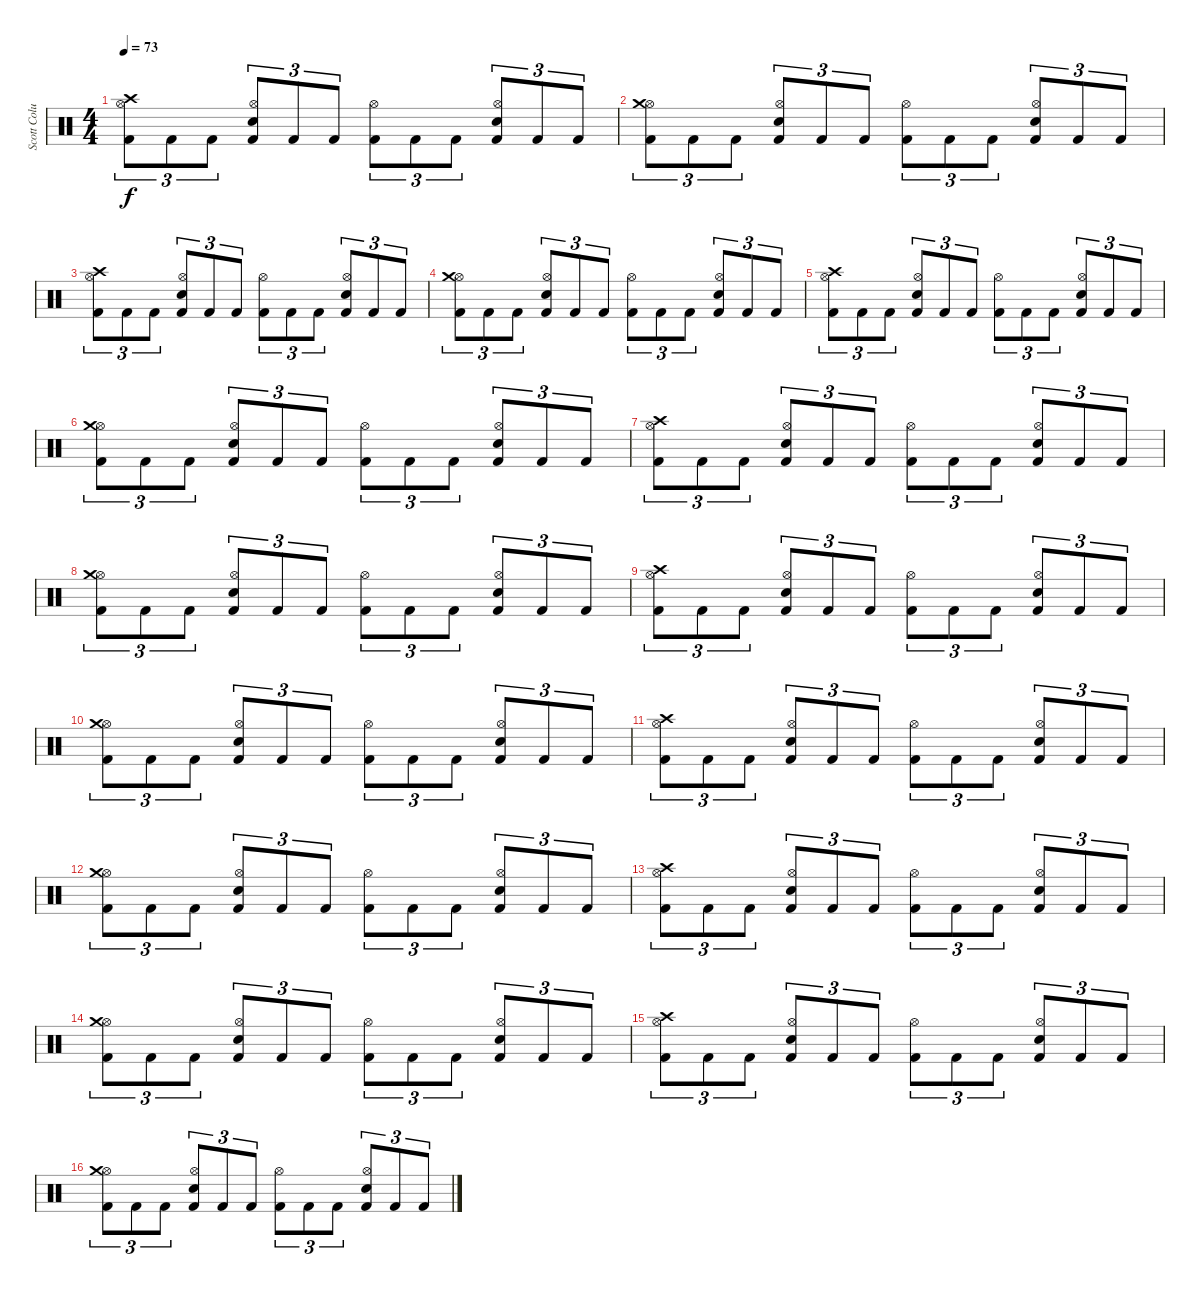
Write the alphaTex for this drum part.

\track ("Scott Columbus" "Scott Colu") {instrument percussion}
\staff {score}
\articulation defaults
\ts (4 4)
\tempo 73
\clef neutral
\ks c
("Kick (hit) 2" "Hi-Hat (open)" "Crash high (hit)").8{tu (3 2) dy f} "Kick (hit) 2".8{tu (3 2)} "Kick (hit) 2".8{tu (3 2)} ("Kick (hit) 2" "Electric Snare (hit)" "Hi-Hat (open)").8{tu (3 2)} "Kick (hit) 2".8{tu (3 2)} "Kick (hit) 2".8{tu (3 2)} ("Kick (hit) 2" "Hi-Hat (open)").8{tu (3 2)} "Kick (hit) 2".8{tu (3 2)} "Kick (hit) 2".8{tu (3 2)} ("Kick (hit) 2" "Electric Snare (hit)" "Hi-Hat (open)").8{tu (3 2)} "Kick (hit) 2".8{tu (3 2)} "Kick (hit) 2".8{tu (3 2)} |
("Kick (hit) 2" "Hi-Hat (open)" "Crash medium (hit)").8{tu (3 2)} "Kick (hit) 2".8{tu (3 2)} "Kick (hit) 2".8{tu (3 2)} ("Kick (hit) 2" "Electric Snare (hit)" "Hi-Hat (open)").8{tu (3 2)} "Kick (hit) 2".8{tu (3 2)} "Kick (hit) 2".8{tu (3 2)} ("Kick (hit) 2" "Hi-Hat (open)").8{tu (3 2)} "Kick (hit) 2".8{tu (3 2)} "Kick (hit) 2".8{tu (3 2)} ("Kick (hit) 2" "Electric Snare (hit)" "Hi-Hat (open)").8{tu (3 2)} "Kick (hit) 2".8{tu (3 2)} "Kick (hit) 2".8{tu (3 2)} |
("Kick (hit) 2" "Hi-Hat (open)" "Crash high (hit)").8{tu (3 2)} "Kick (hit) 2".8{tu (3 2)} "Kick (hit) 2".8{tu (3 2)} ("Kick (hit) 2" "Electric Snare (hit)" "Hi-Hat (open)").8{tu (3 2)} "Kick (hit) 2".8{tu (3 2)} "Kick (hit) 2".8{tu (3 2)} ("Kick (hit) 2" "Hi-Hat (open)").8{tu (3 2)} "Kick (hit) 2".8{tu (3 2)} "Kick (hit) 2".8{tu (3 2)} ("Kick (hit) 2" "Electric Snare (hit)" "Hi-Hat (open)").8{tu (3 2)} "Kick (hit) 2".8{tu (3 2)} "Kick (hit) 2".8{tu (3 2)} |
("Kick (hit) 2" "Hi-Hat (open)" "Crash medium (hit)").8{tu (3 2)} "Kick (hit) 2".8{tu (3 2)} "Kick (hit) 2".8{tu (3 2)} ("Kick (hit) 2" "Electric Snare (hit)" "Hi-Hat (open)").8{tu (3 2)} "Kick (hit) 2".8{tu (3 2)} "Kick (hit) 2".8{tu (3 2)} ("Kick (hit) 2" "Hi-Hat (open)").8{tu (3 2)} "Kick (hit) 2".8{tu (3 2)} "Kick (hit) 2".8{tu (3 2)} ("Kick (hit) 2" "Electric Snare (hit)" "Hi-Hat (open)").8{tu (3 2)} "Kick (hit) 2".8{tu (3 2)} "Kick (hit) 2".8{tu (3 2)} |
("Kick (hit) 2" "Hi-Hat (open)" "Crash high (hit)").8{tu (3 2)} "Kick (hit) 2".8{tu (3 2)} "Kick (hit) 2".8{tu (3 2)} ("Kick (hit) 2" "Electric Snare (hit)" "Hi-Hat (open)").8{tu (3 2)} "Kick (hit) 2".8{tu (3 2)} "Kick (hit) 2".8{tu (3 2)} ("Kick (hit) 2" "Hi-Hat (open)").8{tu (3 2)} "Kick (hit) 2".8{tu (3 2)} "Kick (hit) 2".8{tu (3 2)} ("Kick (hit) 2" "Electric Snare (hit)" "Hi-Hat (open)").8{tu (3 2)} "Kick (hit) 2".8{tu (3 2)} "Kick (hit) 2".8{tu (3 2)} |
("Kick (hit) 2" "Hi-Hat (open)" "Crash medium (hit)").8{tu (3 2)} "Kick (hit) 2".8{tu (3 2)} "Kick (hit) 2".8{tu (3 2)} ("Kick (hit) 2" "Electric Snare (hit)" "Hi-Hat (open)").8{tu (3 2)} "Kick (hit) 2".8{tu (3 2)} "Kick (hit) 2".8{tu (3 2)} ("Kick (hit) 2" "Hi-Hat (open)").8{tu (3 2)} "Kick (hit) 2".8{tu (3 2)} "Kick (hit) 2".8{tu (3 2)} ("Kick (hit) 2" "Electric Snare (hit)" "Hi-Hat (open)").8{tu (3 2)} "Kick (hit) 2".8{tu (3 2)} "Kick (hit) 2".8{tu (3 2)} |
("Kick (hit) 2" "Hi-Hat (open)" "Crash high (hit)").8{tu (3 2)} "Kick (hit) 2".8{tu (3 2)} "Kick (hit) 2".8{tu (3 2)} ("Kick (hit) 2" "Electric Snare (hit)" "Hi-Hat (open)").8{tu (3 2)} "Kick (hit) 2".8{tu (3 2)} "Kick (hit) 2".8{tu (3 2)} ("Kick (hit) 2" "Hi-Hat (open)").8{tu (3 2)} "Kick (hit) 2".8{tu (3 2)} "Kick (hit) 2".8{tu (3 2)} ("Kick (hit) 2" "Electric Snare (hit)" "Hi-Hat (open)").8{tu (3 2)} "Kick (hit) 2".8{tu (3 2)} "Kick (hit) 2".8{tu (3 2)} |
("Kick (hit) 2" "Hi-Hat (open)" "Crash medium (hit)").8{tu (3 2)} "Kick (hit) 2".8{tu (3 2)} "Kick (hit) 2".8{tu (3 2)} ("Kick (hit) 2" "Electric Snare (hit)" "Hi-Hat (open)").8{tu (3 2)} "Kick (hit) 2".8{tu (3 2)} "Kick (hit) 2".8{tu (3 2)} ("Kick (hit) 2" "Hi-Hat (open)").8{tu (3 2)} "Kick (hit) 2".8{tu (3 2)} "Kick (hit) 2".8{tu (3 2)} ("Kick (hit) 2" "Electric Snare (hit)" "Hi-Hat (open)").8{tu (3 2)} "Kick (hit) 2".8{tu (3 2)} "Kick (hit) 2".8{tu (3 2)} |
("Kick (hit) 2" "Hi-Hat (open)" "Crash high (hit)").8{tu (3 2)} "Kick (hit) 2".8{tu (3 2)} "Kick (hit) 2".8{tu (3 2)} ("Kick (hit) 2" "Electric Snare (hit)" "Hi-Hat (open)").8{tu (3 2)} "Kick (hit) 2".8{tu (3 2)} "Kick (hit) 2".8{tu (3 2)} ("Kick (hit) 2" "Hi-Hat (open)").8{tu (3 2)} "Kick (hit) 2".8{tu (3 2)} "Kick (hit) 2".8{tu (3 2)} ("Kick (hit) 2" "Electric Snare (hit)" "Hi-Hat (open)").8{tu (3 2)} "Kick (hit) 2".8{tu (3 2)} "Kick (hit) 2".8{tu (3 2)} |
("Kick (hit) 2" "Hi-Hat (open)" "Crash medium (hit)").8{tu (3 2)} "Kick (hit) 2".8{tu (3 2)} "Kick (hit) 2".8{tu (3 2)} ("Kick (hit) 2" "Electric Snare (hit)" "Hi-Hat (open)").8{tu (3 2)} "Kick (hit) 2".8{tu (3 2)} "Kick (hit) 2".8{tu (3 2)} ("Kick (hit) 2" "Hi-Hat (open)").8{tu (3 2)} "Kick (hit) 2".8{tu (3 2)} "Kick (hit) 2".8{tu (3 2)} ("Kick (hit) 2" "Electric Snare (hit)" "Hi-Hat (open)").8{tu (3 2)} "Kick (hit) 2".8{tu (3 2)} "Kick (hit) 2".8{tu (3 2)} |
("Kick (hit) 2" "Hi-Hat (open)" "Crash high (hit)").8{tu (3 2)} "Kick (hit) 2".8{tu (3 2)} "Kick (hit) 2".8{tu (3 2)} ("Kick (hit) 2" "Electric Snare (hit)" "Hi-Hat (open)").8{tu (3 2)} "Kick (hit) 2".8{tu (3 2)} "Kick (hit) 2".8{tu (3 2)} ("Kick (hit) 2" "Hi-Hat (open)").8{tu (3 2)} "Kick (hit) 2".8{tu (3 2)} "Kick (hit) 2".8{tu (3 2)} ("Kick (hit) 2" "Electric Snare (hit)" "Hi-Hat (open)").8{tu (3 2)} "Kick (hit) 2".8{tu (3 2)} "Kick (hit) 2".8{tu (3 2)} |
("Kick (hit) 2" "Hi-Hat (open)" "Crash medium (hit)").8{tu (3 2)} "Kick (hit) 2".8{tu (3 2)} "Kick (hit) 2".8{tu (3 2)} ("Kick (hit) 2" "Electric Snare (hit)" "Hi-Hat (open)").8{tu (3 2)} "Kick (hit) 2".8{tu (3 2)} "Kick (hit) 2".8{tu (3 2)} ("Kick (hit) 2" "Hi-Hat (open)").8{tu (3 2)} "Kick (hit) 2".8{tu (3 2)} "Kick (hit) 2".8{tu (3 2)} ("Kick (hit) 2" "Electric Snare (hit)" "Hi-Hat (open)").8{tu (3 2)} "Kick (hit) 2".8{tu (3 2)} "Kick (hit) 2".8{tu (3 2)} |
("Kick (hit) 2" "Hi-Hat (open)" "Crash high (hit)").8{tu (3 2)} "Kick (hit) 2".8{tu (3 2)} "Kick (hit) 2".8{tu (3 2)} ("Kick (hit) 2" "Electric Snare (hit)" "Hi-Hat (open)").8{tu (3 2)} "Kick (hit) 2".8{tu (3 2)} "Kick (hit) 2".8{tu (3 2)} ("Kick (hit) 2" "Hi-Hat (open)").8{tu (3 2)} "Kick (hit) 2".8{tu (3 2)} "Kick (hit) 2".8{tu (3 2)} ("Kick (hit) 2" "Electric Snare (hit)" "Hi-Hat (open)").8{tu (3 2)} "Kick (hit) 2".8{tu (3 2)} "Kick (hit) 2".8{tu (3 2)} |
("Kick (hit) 2" "Hi-Hat (open)" "Crash medium (hit)").8{tu (3 2)} "Kick (hit) 2".8{tu (3 2)} "Kick (hit) 2".8{tu (3 2)} ("Kick (hit) 2" "Electric Snare (hit)" "Hi-Hat (open)").8{tu (3 2)} "Kick (hit) 2".8{tu (3 2)} "Kick (hit) 2".8{tu (3 2)} ("Kick (hit) 2" "Hi-Hat (open)").8{tu (3 2)} "Kick (hit) 2".8{tu (3 2)} "Kick (hit) 2".8{tu (3 2)} ("Kick (hit) 2" "Electric Snare (hit)" "Hi-Hat (open)").8{tu (3 2)} "Kick (hit) 2".8{tu (3 2)} "Kick (hit) 2".8{tu (3 2)} |
("Kick (hit) 2" "Hi-Hat (open)" "Crash high (hit)").8{tu (3 2)} "Kick (hit) 2".8{tu (3 2)} "Kick (hit) 2".8{tu (3 2)} ("Kick (hit) 2" "Electric Snare (hit)" "Hi-Hat (open)").8{tu (3 2)} "Kick (hit) 2".8{tu (3 2)} "Kick (hit) 2".8{tu (3 2)} ("Kick (hit) 2" "Hi-Hat (open)").8{tu (3 2)} "Kick (hit) 2".8{tu (3 2)} "Kick (hit) 2".8{tu (3 2)} ("Kick (hit) 2" "Electric Snare (hit)" "Hi-Hat (open)").8{tu (3 2)} "Kick (hit) 2".8{tu (3 2)} "Kick (hit) 2".8{tu (3 2)} |
("Kick (hit) 2" "Hi-Hat (open)" "Crash medium (hit)").8{tu (3 2)} "Kick (hit) 2".8{tu (3 2)} "Kick (hit) 2".8{tu (3 2)} ("Kick (hit) 2" "Electric Snare (hit)" "Hi-Hat (open)").8{tu (3 2)} "Kick (hit) 2".8{tu (3 2)} "Kick (hit) 2".8{tu (3 2)} ("Kick (hit) 2" "Hi-Hat (open)").8{tu (3 2)} "Kick (hit) 2".8{tu (3 2)} "Kick (hit) 2".8{tu (3 2)} ("Kick (hit) 2" "Electric Snare (hit)" "Hi-Hat (open)").8{tu (3 2)} "Kick (hit) 2".8{tu (3 2)} "Kick (hit) 2".8{tu (3 2)}
